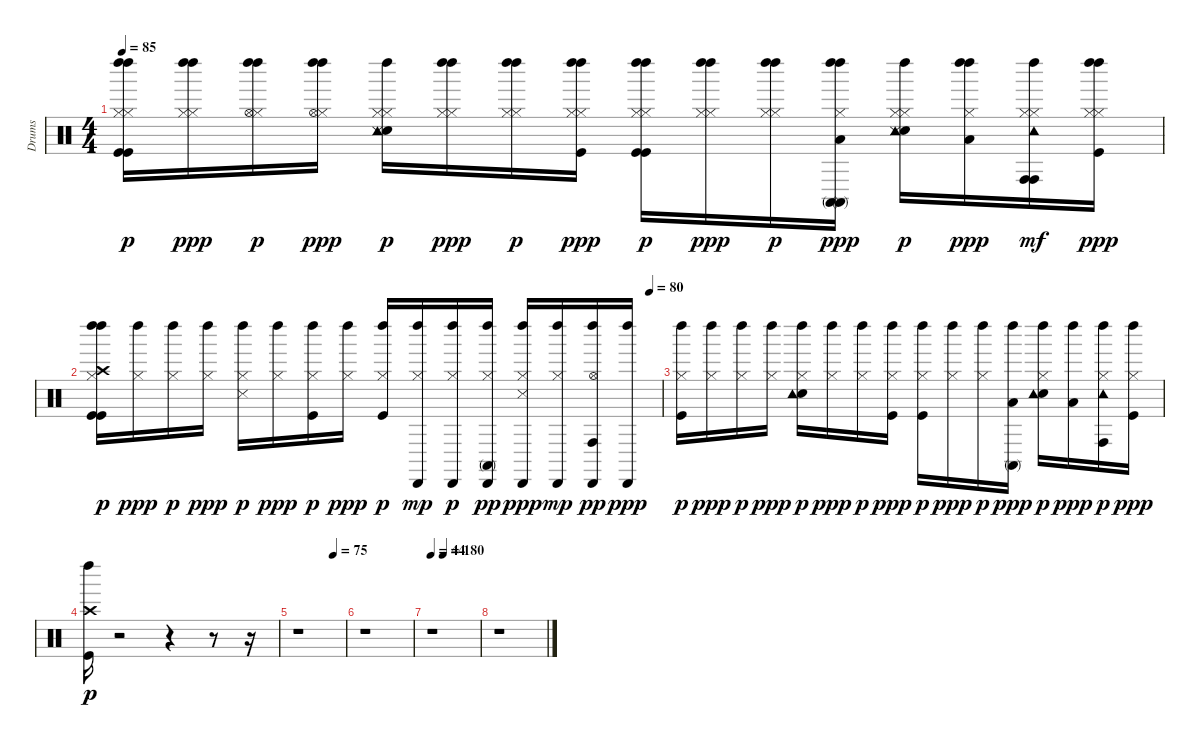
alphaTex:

\track ("Drums" "Drums") {instrument percussion}
\staff {score}
\articulation defaults
\ts (4 4)
\tempo 85
\clef neutral
\ks c
("Kick (hit)" "Hi-Hat (closed)" "Left Maraca (hit)" "Kick (hit)" "Hi-Hat (closed)" "Left Maraca (hit)").16{dy p} ("Hi-Hat (closed)" "Left Maraca (hit)" "Hi-Hat (closed)" "Left Maraca (hit)").16{dy ppp} ("Hi-Hat (closed)" "Left Maraca (hit)" "Hi-Hat (open)" "Left Maraca (hit)").16{dy p} ("Hi-Hat (closed)" "Left Maraca (hit)" "Hi-Hat (open)" "Left Maraca (hit)").16{dy ppp} ("Snare (hit) 2" "Hi-Hat (closed)" "Tambourine (hit)" "Left Maraca (hit)" "Hi-Hat (closed)" "Snare (side stick) 3").16{dy p} ("Hi-Hat (closed)" "Left Maraca (hit)" "Hi-Hat (closed)" "Left Maraca (hit)").16{dy ppp} ("Hi-Hat (closed)" "Left Maraca (hit)" "Hi-Hat (closed)" "Left Maraca (hit)").16{dy p} ("Kick (hit)" "Hi-Hat (closed)" "Left Maraca (hit)" "Hi-Hat (closed)" "Left Maraca (hit)").16{dy ppp} ("Kick (hit)" "Hi-Hat (closed)" "Left Maraca (hit)" "Kick (hit)" "Hi-Hat (closed)" "Left Maraca (hit)").16{dy p} ("Hi-Hat (closed)" "Left Maraca (hit)" "Hi-Hat (closed)" "Left Maraca (hit)").16{dy ppp} ("Hi-Hat (closed)" "Left Maraca (hit)" "Hi-Hat (closed)" "Left Maraca (hit)").16{dy p} ("Low Tom (hit)" "Conga high (mute)" "Left Maraca (hit)" "Hi-Hat (closed)" "Conga high (mute)" "Left Maraca (hit)").16{dy ppp} ("Snare (hit) 2" "Hi-Hat (closed)" "Tambourine (hit)" "Left Maraca (hit)" "Hi-Hat (closed)" "Snare (side stick) 3").16{dy p} ("Low Floor Tom (hit)" "Left Maraca (hit)" "Hi-Hat (closed)" "Left Maraca (hit)").16{dy ppp} ("Hi-Hat (closed)" "Conga high (hit)" "Tambourine (hit)" "Left Maraca (hit)" "Hi-Hat (closed)" "Conga high (hit)").16{dy mf} ("Kick (hit)" "Hi-Hat (closed)" "Left Maraca (hit)" "Hi-Hat (closed)" "Left Maraca (hit)").16{dy ppp} |
\tempo (80 0.9791666666666666)
("Kick (hit)" "Crash high (hit)" "Left Maraca (hit)" "Kick (hit)" "Hi-Hat (closed)" "Left Maraca (hit)").16{dy p} ("Hi-Hat (closed)" "Left Maraca (hit)").16{dy ppp} ("Hi-Hat (closed)" "Left Maraca (hit)").16{dy p} ("Hi-Hat (closed)" "Left Maraca (hit)").16{dy ppp} ("Hi-Hat (closed)" "Snare (side stick) 3" "Left Maraca (hit)").16{dy p} ("Hi-Hat (closed)" "Left Maraca (hit)").16{dy ppp} ("Kick (hit)" "Hi-Hat (closed)" "Left Maraca (hit)").16{dy p} ("Hi-Hat (closed)" "Left Maraca (hit)").16{dy ppp} ("Kick (hit)" "Hi-Hat (closed)" "Left Maraca (hit)").16{dy p} ("Hi-Hat (closed)" "Left Maraca (hit)" "Cabasa (hit)").16{dy mp} ("Hi-Hat (closed)" "Left Maraca (hit)" "Cabasa (hit)").16{dy p} ("Hi-Hat (closed)" "Conga high (mute)" "Left Maraca (hit)" "Cabasa (hit)").16{dy pp} ("Hi-Hat (closed)" "Snare (side stick) 3" "Left Maraca (hit)" "Cabasa (hit)").16{dy ppp} ("Hi-Hat (closed)" "Left Maraca (hit)" "Cabasa (hit)").16{dy mp} ("Hi-Hat (open)" "Conga high (hit)" "Left Maraca (hit)" "Cabasa (hit)").16{dy pp} ("Left Maraca (hit)" "Cabasa (hit)").16{dy ppp} |
("Kick (hit)" "Hi-Hat (closed)" "Left Maraca (hit)").16{dy p} ("Hi-Hat (closed)" "Left Maraca (hit)").16{dy ppp} ("Hi-Hat (closed)" "Left Maraca (hit)").16{dy p} ("Hi-Hat (closed)" "Left Maraca (hit)").16{dy ppp} ("Snare (hit) 2" "Hi-Hat (closed)" "Tambourine (hit)" "Left Maraca (hit)").16{dy p} ("Hi-Hat (closed)" "Left Maraca (hit)").16{dy ppp} ("Hi-Hat (closed)" "Left Maraca (hit)").16{dy p} ("Kick (hit)" "Hi-Hat (closed)" "Left Maraca (hit)").16{dy ppp} ("Kick (hit)" "Hi-Hat (closed)" "Left Maraca (hit)").16{dy p} ("Hi-Hat (closed)" "Left Maraca (hit)").16{dy ppp} ("Hi-Hat (closed)" "Left Maraca (hit)").16{dy p} ("Low Tom (hit)" "Conga high (mute)" "Left Maraca (hit)").16{dy ppp} ("Snare (hit) 2" "Hi-Hat (closed)" "Tambourine (hit)" "Left Maraca (hit)").16{dy p} ("Low Floor Tom (hit)" "Left Maraca (hit)").16{dy ppp} ("Hi-Hat (closed)" "Conga high (hit)" "Tambourine (hit)" "Left Maraca (hit)").16{dy p} ("Kick (hit)" "Hi-Hat (closed)" "Left Maraca (hit)").16{dy ppp} |
("Kick (hit)" "Crash high (hit)" "Left Maraca (hit)").16{dy p} r.2 r.4 r.8 r.16 |
\tempo (75 0.7604166666666666)
r.1 |
r.1 |
\tempo 44
\tempo (180 0.25)
r.1 |
r.1
